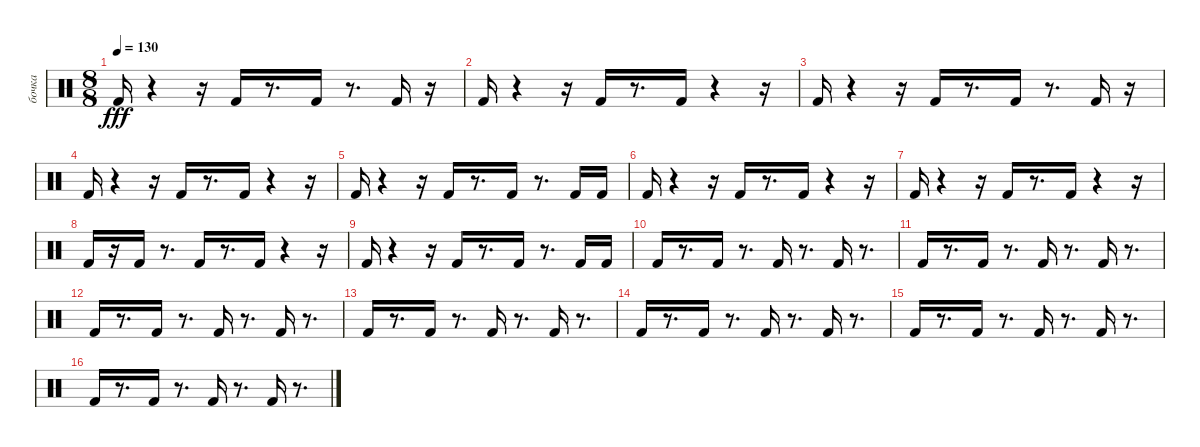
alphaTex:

\track ("бочка" "бочка") {instrument percussion}
\staff {score}
\articulation defaults
\ts (8 8)
\tempo 130
\clef neutral
\ks c "Kick (hit) 2".16{dy fff}
r.4 r.16 "Kick (hit) 2".16 r.8{d} "Kick (hit) 2".16 r.8{d} "Kick (hit) 2".16 r.16 |
"Kick (hit) 2".16 r.4 r.16 "Kick (hit) 2".16 r.8{d} "Kick (hit) 2".16 r.4 r.16 |
"Kick (hit) 2".16 r.4 r.16 "Kick (hit) 2".16 r.8{d} "Kick (hit) 2".16 r.8{d} "Kick (hit) 2".16 r.16 |
"Kick (hit) 2".16 r.4 r.16 "Kick (hit) 2".16 r.8{d} "Kick (hit) 2".16 r.4 r.16 |
"Kick (hit) 2".16 r.4 r.16 "Kick (hit) 2".16 r.8{d} "Kick (hit) 2".16 r.8{d} "Kick (hit) 2".16 "Kick (hit) 2".16 |
"Kick (hit) 2".16 r.4 r.16 "Kick (hit) 2".16 r.8{d} "Kick (hit) 2".16 r.4 r.16 |
"Kick (hit) 2".16 r.4 r.16 "Kick (hit) 2".16 r.8{d} "Kick (hit) 2".16 r.4 r.16 |
"Kick (hit) 2".16 r.16 "Kick (hit) 2".16 r.8{d} "Kick (hit) 2".16 r.8{d} "Kick (hit) 2".16 r.4 r.16 |
"Kick (hit) 2".16 r.4 r.16 "Kick (hit) 2".16 r.8{d} "Kick (hit) 2".16 r.8{d} "Kick (hit) 2".16 "Kick (hit) 2".16 |
"Kick (hit) 2".16 r.8{d} "Kick (hit) 2".16 r.8{d} "Kick (hit) 2".16 r.8{d} "Kick (hit) 2".16 r.8{d} |
"Kick (hit) 2".16 r.8{d} "Kick (hit) 2".16 r.8{d} "Kick (hit) 2".16 r.8{d} "Kick (hit) 2".16 r.8{d} |
"Kick (hit) 2".16 r.8{d} "Kick (hit) 2".16 r.8{d} "Kick (hit) 2".16 r.8{d} "Kick (hit) 2".16 r.8{d} |
"Kick (hit) 2".16 r.8{d} "Kick (hit) 2".16 r.8{d} "Kick (hit) 2".16 r.8{d} "Kick (hit) 2".16 r.8{d} |
"Kick (hit) 2".16 r.8{d} "Kick (hit) 2".16 r.8{d} "Kick (hit) 2".16 r.8{d} "Kick (hit) 2".16 r.8{d} |
"Kick (hit) 2".16 r.8{d} "Kick (hit) 2".16 r.8{d} "Kick (hit) 2".16 r.8{d} "Kick (hit) 2".16 r.8{d} |
"Kick (hit) 2".16 r.8{d} "Kick (hit) 2".16 r.8{d} "Kick (hit) 2".16 r.8{d} "Kick (hit) 2".16 r.8{d}
